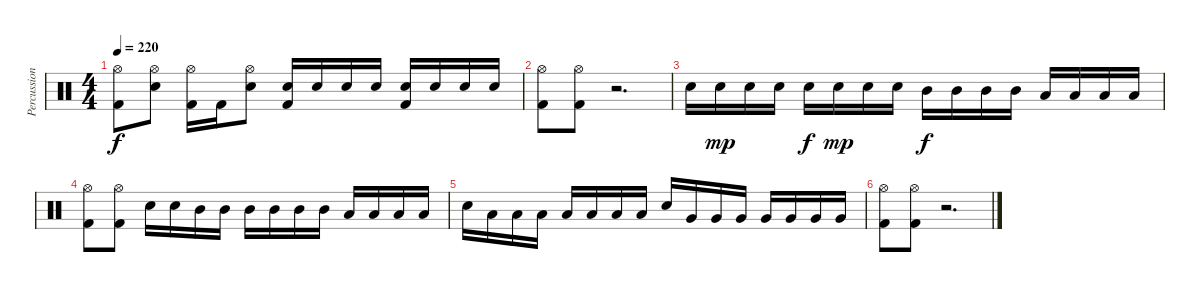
\track ("Percussions" "Percussion") {instrument percussion}
\staff {score}
\articulation defaults
\ts (4 4)
\tempo 220
\clef neutral
\ks c
("Hi-Hat (open)" "Kick (hit) 2").8{dy f} ("Hi-Hat (open)" "Snare (hit) 2").8 ("Hi-Hat (open)" "Kick (hit) 2").16 "Kick (hit) 2".16 ("Hi-Hat (open)" "Snare (hit) 2").8 ("Snare (hit) 2" "Kick (hit) 2").16 "Snare (hit) 2".16 "Snare (hit) 2".16 "Snare (hit) 2".16 ("Snare (hit) 2" "Kick (hit) 2").16 "Snare (hit) 2".16 "Snare (hit) 2".16 "Snare (hit) 2".16 |
("Hi-Hat (open)" "Kick (hit) 2").8 ("Hi-Hat (open)" "Kick (hit) 2").8 r.2{d} |
"Snare (hit) 2".16 "Snare (hit) 2".16{dy mp} "Snare (hit) 2".16 "Snare (hit) 2".16 "Snare (hit) 2".16{dy f} "Snare (hit) 2".16{dy mp} "Snare (hit) 2".16 "Snare (hit) 2".16 "Mid Tom (hit)".16{dy f} "Mid Tom (hit)".16 "Mid Tom (hit)".16 "Mid Tom (hit)".16 "Low Tom (hit)".16 "Low Tom (hit)".16 "Low Tom (hit)".16 "Low Tom (hit)".16 |
("Hi-Hat (open)" "Kick (hit) 2").8 ("Hi-Hat (open)" "Kick (hit) 2").8 "Snare (hit) 2".16 "Snare (hit) 2".16 "Mid Tom (hit)".16 "Mid Tom (hit)".16 "Mid Tom (hit)".16 "Mid Tom (hit)".16 "Mid Tom (hit)".16 "Mid Tom (hit)".16 "Low Tom (hit)".16 "Low Tom (hit)".16 "Low Tom (hit)".16 "Low Tom (hit)".16 |
"Snare (hit) 2".16 "Low Tom (hit)".16 "Low Tom (hit)".16 "Low Tom (hit)".16 "Low Tom (hit)".16 "Low Tom (hit)".16 "Low Tom (hit)".16 "Low Tom (hit)".16 "Snare (hit) 2".16 "Very Low Tom (hit)".16 "Very Low Tom (hit)".16 "Very Low Tom (hit)".16 "Very Low Tom (hit)".16 "Very Low Tom (hit)".16 "Very Low Tom (hit)".16 "Very Low Tom (hit)".16 |
("Hi-Hat (open)" "Kick (hit) 2").8 ("Hi-Hat (open)" "Kick (hit) 2").8 r.2{d}
